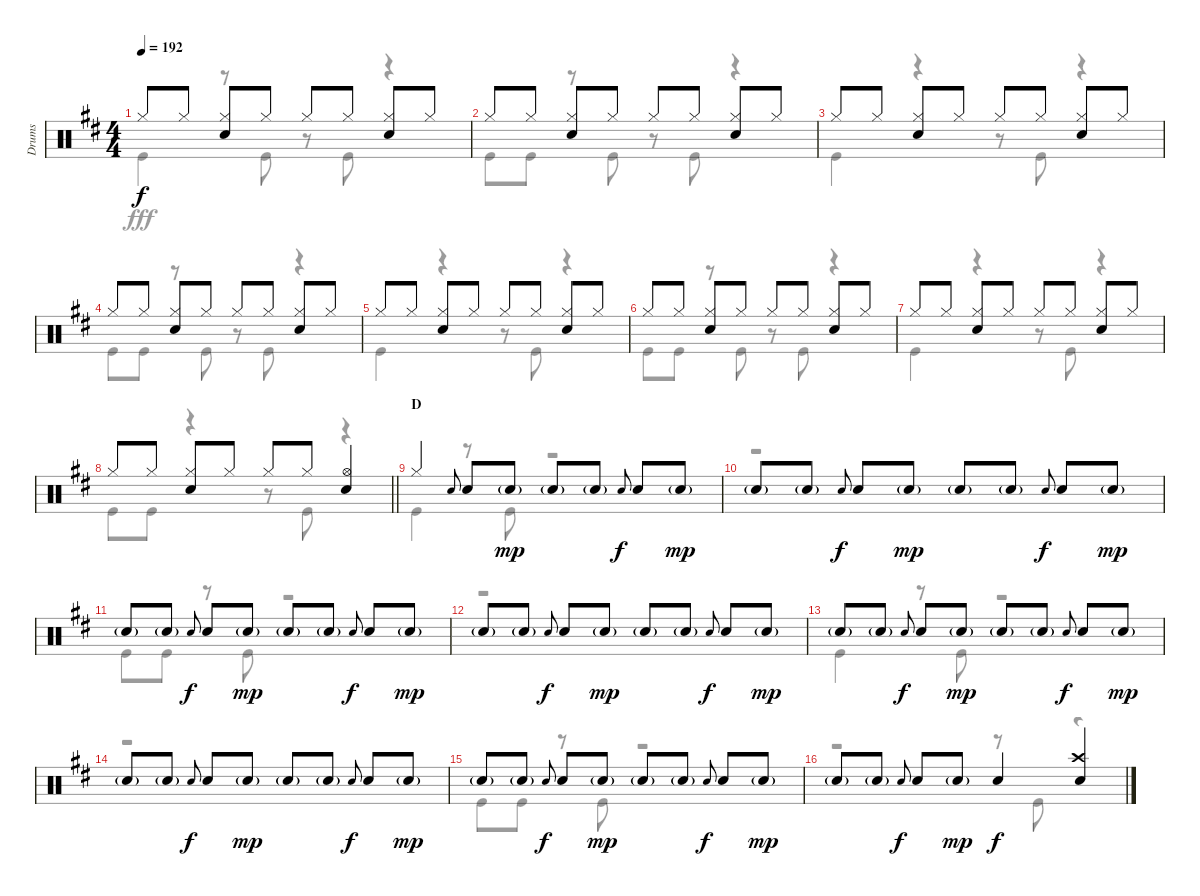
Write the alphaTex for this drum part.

\track ("Drums" "Drums") {instrument percussion}
\staff {score}
\articulation defaults
\voice
\ts (4 4)
\tempo 192
\clef neutral
\ks d "Hi-Hat (closed)".8{dy f} "Hi-Hat (closed)".8
("Hi-Hat (closed)" "Snare (hit) 2").8 "Hi-Hat (closed)".8 "Hi-Hat (closed)".8 "Hi-Hat (closed)".8 ("Hi-Hat (closed)" "Snare (hit) 2").8 "Hi-Hat (closed)".8 |
"Hi-Hat (closed)".8 "Hi-Hat (closed)".8 ("Hi-Hat (closed)" "Snare (hit) 2").8 "Hi-Hat (closed)".8 "Hi-Hat (closed)".8 "Hi-Hat (closed)".8 ("Hi-Hat (closed)" "Snare (hit) 2").8 "Hi-Hat (closed)".8 |
"Hi-Hat (closed)".8 "Hi-Hat (closed)".8 ("Hi-Hat (closed)" "Snare (hit) 2").8 "Hi-Hat (closed)".8 "Hi-Hat (closed)".8 "Hi-Hat (closed)".8 ("Hi-Hat (closed)" "Snare (hit) 2").8 "Hi-Hat (closed)".8 |
"Hi-Hat (closed)".8 "Hi-Hat (closed)".8 ("Hi-Hat (closed)" "Snare (hit) 2").8 "Hi-Hat (closed)".8 "Hi-Hat (closed)".8 "Hi-Hat (closed)".8 ("Hi-Hat (closed)" "Snare (hit) 2").8 "Hi-Hat (closed)".8 |
"Hi-Hat (closed)".8 "Hi-Hat (closed)".8 ("Hi-Hat (closed)" "Snare (hit) 2").8 "Hi-Hat (closed)".8 "Hi-Hat (closed)".8 "Hi-Hat (closed)".8 ("Hi-Hat (closed)" "Snare (hit) 2").8 "Hi-Hat (closed)".8 |
"Hi-Hat (closed)".8 "Hi-Hat (closed)".8 ("Hi-Hat (closed)" "Snare (hit) 2").8 "Hi-Hat (closed)".8 "Hi-Hat (closed)".8 "Hi-Hat (closed)".8 ("Hi-Hat (closed)" "Snare (hit) 2").8 "Hi-Hat (closed)".8 |
"Hi-Hat (closed)".8 "Hi-Hat (closed)".8 ("Hi-Hat (closed)" "Snare (hit) 2").8 "Hi-Hat (closed)".8 "Hi-Hat (closed)".8 "Hi-Hat (closed)".8 ("Hi-Hat (closed)" "Snare (hit) 2").8 "Hi-Hat (closed)".8 |
\barLineRight lightlight "Hi-Hat (closed)".8 "Hi-Hat (closed)".8
("Hi-Hat (closed)" "Snare (hit) 2").8 "Hi-Hat (closed)".8 "Hi-Hat (closed)".8 "Hi-Hat (closed)".8 ("Hi-Hat (open)" "Snare (hit) 2").4 |
\section ("" "D")
"Hi-Hat (closed)".4 "Snare (hit) 2".8{gr onbeat} "Snare (hit) 2".8 "Snare (hit) 2"{g}.8{dy mp} "Snare (hit) 2"{g}.8 "Snare (hit) 2"{g}.8 "Snare (hit) 2".8{gr onbeat dy f} "Snare (hit) 2".8 "Snare (hit) 2"{g}.8{dy mp} |
"Snare (hit) 2"{g}.8 "Snare (hit) 2"{g}.8 "Snare (hit) 2".8{gr onbeat dy f} "Snare (hit) 2".8 "Snare (hit) 2"{g}.8{dy mp} "Snare (hit) 2"{g}.8 "Snare (hit) 2"{g}.8 "Snare (hit) 2".8{gr onbeat dy f} "Snare (hit) 2".8 "Snare (hit) 2"{g}.8{dy mp} |
"Snare (hit) 2"{g}.8 "Snare (hit) 2"{g}.8 "Snare (hit) 2".8{gr onbeat dy f} "Snare (hit) 2".8 "Snare (hit) 2"{g}.8{dy mp} "Snare (hit) 2"{g}.8 "Snare (hit) 2"{g}.8 "Snare (hit) 2".8{gr onbeat dy f} "Snare (hit) 2".8 "Snare (hit) 2"{g}.8{dy mp} |
"Snare (hit) 2"{g}.8 "Snare (hit) 2"{g}.8 "Snare (hit) 2".8{gr onbeat dy f} "Snare (hit) 2".8 "Snare (hit) 2"{g}.8{dy mp} "Snare (hit) 2"{g}.8 "Snare (hit) 2"{g}.8 "Snare (hit) 2".8{gr onbeat dy f} "Snare (hit) 2".8 "Snare (hit) 2"{g}.8{dy mp} |
"Snare (hit) 2"{g}.8 "Snare (hit) 2"{g}.8 "Snare (hit) 2".8{gr onbeat dy f} "Snare (hit) 2".8 "Snare (hit) 2"{g}.8{dy mp} "Snare (hit) 2"{g}.8 "Snare (hit) 2"{g}.8 "Snare (hit) 2".8{gr onbeat dy f} "Snare (hit) 2".8 "Snare (hit) 2"{g}.8{dy mp} |
"Snare (hit) 2"{g}.8 "Snare (hit) 2"{g}.8 "Snare (hit) 2".8{gr onbeat dy f} "Snare (hit) 2".8 "Snare (hit) 2"{g}.8{dy mp} "Snare (hit) 2"{g}.8 "Snare (hit) 2"{g}.8 "Snare (hit) 2".8{gr onbeat dy f} "Snare (hit) 2".8 "Snare (hit) 2"{g}.8{dy mp} |
"Snare (hit) 2"{g}.8 "Snare (hit) 2"{g}.8 "Snare (hit) 2".8{gr onbeat dy f} "Snare (hit) 2".8 "Snare (hit) 2"{g}.8{dy mp} "Snare (hit) 2"{g}.8 "Snare (hit) 2"{g}.8 "Snare (hit) 2".8{gr onbeat dy f} "Snare (hit) 2".8 "Snare (hit) 2"{g}.8{dy mp} |
"Snare (hit) 2"{g}.8 "Snare (hit) 2"{g}.8 "Snare (hit) 2".8{gr onbeat dy f} "Snare (hit) 2".8 "Snare (hit) 2"{g}.8{dy mp} "Snare (hit) 2".4{dy f} ("Crash high (hit)" "Snare (hit) 2").4
\voice
\clef neutral
\ottava regular
\simile none
\ks d "Kick (hit)".4{dy fff}
r.8 "Kick (hit)".8 r.8 "Kick (hit)".8 r.4 |
"Kick (hit)".8 "Kick (hit)".8 r.8 "Kick (hit)".8 r.8 "Kick (hit)".8 r.4 |
"Kick (hit)".4 r.4 r.8 "Kick (hit)".8 r.4 |
"Kick (hit)".8 "Kick (hit)".8 r.8 "Kick (hit)".8 r.8 "Kick (hit)".8 r.4 |
"Kick (hit)".4 r.4 r.8 "Kick (hit)".8 r.4 |
"Kick (hit)".8 "Kick (hit)".8 r.8 "Kick (hit)".8 r.8 "Kick (hit)".8 r.4 |
"Kick (hit)".4 r.4 r.8 "Kick (hit)".8 r.4 |
\barLineRight lightlight "Kick (hit)".8 "Kick (hit)".8
r.4 r.8 "Kick (hit)".8 r.4 |
"Kick (hit)".4 r.8 "Kick (hit)".8 r.2 |
r.1 |
"Kick (hit)".8 "Kick (hit)".8 r.8 "Kick (hit)".8 r.2 |
r.1 |
"Kick (hit)".4 r.8 "Kick (hit)".8 r.2 |
r.1 |
"Kick (hit)".8 "Kick (hit)".8 r.8 "Kick (hit)".8 r.2 |
r.2 r.8 "Kick (hit)".8 r.4
